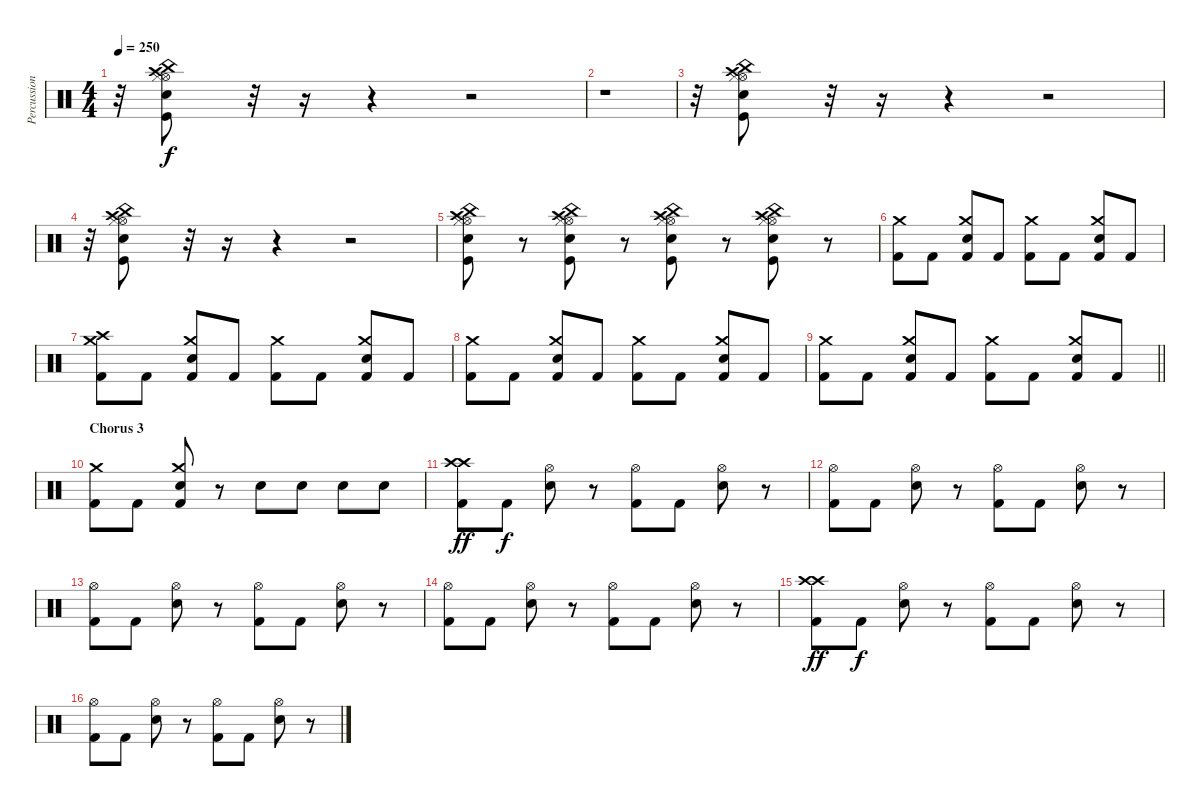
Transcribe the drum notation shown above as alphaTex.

\track ("Percussion" "Percussion") {instrument percussion}
\staff {score}
\articulation defaults
\ts (4 4)
\tempo 250
\clef neutral
\ks c
r.32{dy f} ("China (hit)" "Crash high (hit)" "Hi-Hat (open)" "Hi-Hat (closed)" "Snare (hit) 2" "Kick (hit)").8 r.32 r.16 r.4 r.2 |
r.1 |
r.32 ("China (hit)" "Crash high (hit)" "Hi-Hat (open)" "Hi-Hat (closed)" "Snare (hit) 2" "Kick (hit)").8 r.32 r.16 r.4 r.2 |
r.32 ("China (hit)" "Crash high (hit)" "Hi-Hat (open)" "Hi-Hat (closed)" "Snare (hit) 2" "Kick (hit)").8 r.32 r.16 r.4 r.2 |
("China (hit)" "Crash high (hit)" "Hi-Hat (open)" "Hi-Hat (closed)" "Snare (hit) 2" "Kick (hit)").8 r.8 ("China (hit)" "Crash high (hit)" "Hi-Hat (open)" "Hi-Hat (closed)" "Snare (hit) 2" "Kick (hit)").8 r.8 ("China (hit)" "Crash high (hit)" "Hi-Hat (open)" "Hi-Hat (closed)" "Snare (hit) 2" "Kick (hit)").8 r.8 ("China (hit)" "Crash high (hit)" "Hi-Hat (open)" "Hi-Hat (closed)" "Snare (hit) 2" "Kick (hit)").8 r.8 |
("Crash medium (hit)" "Kick (hit) 2").8 "Kick (hit) 2".8 ("Crash medium (hit)" "Snare (hit) 2" "Kick (hit) 2").8 "Kick (hit) 2".8 ("Crash medium (hit)" "Kick (hit) 2").8 "Kick (hit) 2".8 ("Crash medium (hit)" "Snare (hit) 2" "Kick (hit) 2").8 "Kick (hit) 2".8 |
("Crash high (hit)" "Crash medium (hit)" "Kick (hit) 2").8 "Kick (hit) 2".8 ("Crash medium (hit)" "Snare (hit) 2" "Kick (hit) 2").8 "Kick (hit) 2".8 ("Crash medium (hit)" "Kick (hit) 2").8 "Kick (hit) 2".8 ("Crash medium (hit)" "Snare (hit) 2" "Kick (hit) 2").8 "Kick (hit) 2".8 |
("Crash medium (hit)" "Kick (hit) 2").8 "Kick (hit) 2".8 ("Crash medium (hit)" "Snare (hit) 2" "Kick (hit) 2").8 "Kick (hit) 2".8 ("Crash medium (hit)" "Kick (hit) 2").8 "Kick (hit) 2".8 ("Crash medium (hit)" "Snare (hit) 2" "Kick (hit) 2").8 "Kick (hit) 2".8 |
\barLineRight lightlight
("Crash medium (hit)" "Kick (hit) 2").8 "Kick (hit) 2".8 ("Crash medium (hit)" "Snare (hit) 2" "Kick (hit) 2").8 "Kick (hit) 2".8 ("Crash medium (hit)" "Kick (hit) 2").8 "Kick (hit) 2".8 ("Crash medium (hit)" "Snare (hit) 2" "Kick (hit) 2").8 "Kick (hit) 2".8 |
\section ("" "Chorus 3")
("Crash medium (hit)" "Kick (hit) 2").8 "Kick (hit) 2".8 ("Crash medium (hit)" "Snare (hit) 2" "Kick (hit) 2").8 r.8 "Snare (hit) 2".8 "Snare (hit) 2".8 "Snare (hit) 2".8 "Snare (hit) 2".8 |
("Crash high (hit)" "Crash high (hit)" "Kick (hit) 2").8{dy ff} "Kick (hit) 2".8{dy f} ("Hi-Hat (open)" "Snare (hit) 2").8 r.8 ("Hi-Hat (open)" "Kick (hit) 2").8 "Kick (hit) 2".8 ("Hi-Hat (open)" "Snare (hit) 2").8 r.8 |
("Hi-Hat (open)" "Kick (hit) 2").8 "Kick (hit) 2".8 ("Hi-Hat (open)" "Snare (hit) 2").8 r.8 ("Hi-Hat (open)" "Kick (hit) 2").8 "Kick (hit) 2".8 ("Hi-Hat (open)" "Snare (hit) 2").8 r.8 |
("Hi-Hat (open)" "Kick (hit) 2").8 "Kick (hit) 2".8 ("Hi-Hat (open)" "Snare (hit) 2").8 r.8 ("Hi-Hat (open)" "Kick (hit) 2").8 "Kick (hit) 2".8 ("Hi-Hat (open)" "Snare (hit) 2").8 r.8 |
("Hi-Hat (open)" "Kick (hit) 2").8 "Kick (hit) 2".8 ("Hi-Hat (open)" "Snare (hit) 2").8 r.8 ("Hi-Hat (open)" "Kick (hit) 2").8 "Kick (hit) 2".8 ("Hi-Hat (open)" "Snare (hit) 2").8 r.8 |
("Crash high (hit)" "Crash high (hit)" "Kick (hit) 2").8{dy ff} "Kick (hit) 2".8{dy f} ("Hi-Hat (open)" "Snare (hit) 2").8 r.8 ("Hi-Hat (open)" "Kick (hit) 2").8 "Kick (hit) 2".8 ("Hi-Hat (open)" "Snare (hit) 2").8 r.8 |
("Hi-Hat (open)" "Kick (hit) 2").8 "Kick (hit) 2".8 ("Hi-Hat (open)" "Snare (hit) 2").8 r.8 ("Hi-Hat (open)" "Kick (hit) 2").8 "Kick (hit) 2".8 ("Hi-Hat (open)" "Snare (hit) 2").8 r.8
